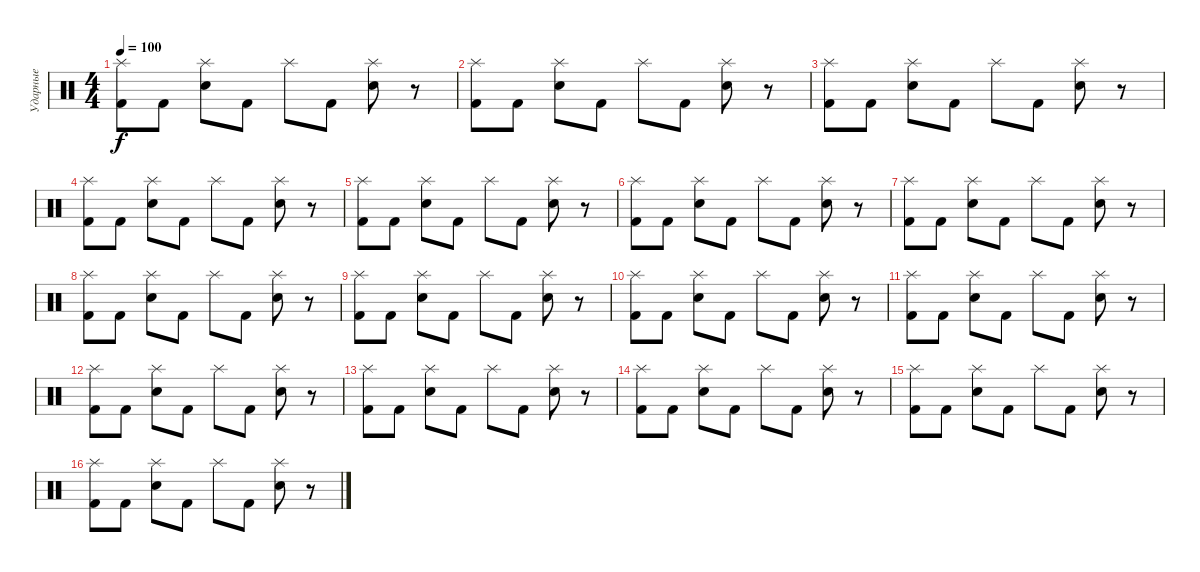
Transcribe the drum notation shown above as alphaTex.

\track ("Ударные" "Ударные") {instrument percussion}
\staff {score}
\articulation defaults
\ts (4 4)
\tempo 100
\clef neutral
\ks c
("Kick (hit) 2" "Splash (hit)").8{dy f} "Kick (hit) 2".8 ("Snare (hit) 2" "Splash (hit)").8 "Kick (hit) 2".8 "Splash (hit)".8 "Kick (hit) 2".8 ("Snare (hit) 2" "Splash (hit)").8 r.8 |
("Kick (hit) 2" "Splash (hit)").8 "Kick (hit) 2".8 ("Snare (hit) 2" "Splash (hit)").8 "Kick (hit) 2".8 "Splash (hit)".8 "Kick (hit) 2".8 ("Snare (hit) 2" "Splash (hit)").8 r.8 |
("Kick (hit) 2" "Splash (hit)").8 "Kick (hit) 2".8 ("Snare (hit) 2" "Splash (hit)").8 "Kick (hit) 2".8 "Splash (hit)".8 "Kick (hit) 2".8 ("Snare (hit) 2" "Splash (hit)").8 r.8 |
("Kick (hit) 2" "Splash (hit)").8 "Kick (hit) 2".8 ("Snare (hit) 2" "Splash (hit)").8 "Kick (hit) 2".8 "Splash (hit)".8 "Kick (hit) 2".8 ("Snare (hit) 2" "Splash (hit)").8 r.8 |
("Kick (hit) 2" "Splash (hit)").8 "Kick (hit) 2".8 ("Snare (hit) 2" "Splash (hit)").8 "Kick (hit) 2".8 "Splash (hit)".8 "Kick (hit) 2".8 ("Snare (hit) 2" "Splash (hit)").8 r.8 |
("Kick (hit) 2" "Splash (hit)").8 "Kick (hit) 2".8 ("Snare (hit) 2" "Splash (hit)").8 "Kick (hit) 2".8 "Splash (hit)".8 "Kick (hit) 2".8 ("Snare (hit) 2" "Splash (hit)").8 r.8 |
("Kick (hit) 2" "Splash (hit)").8 "Kick (hit) 2".8 ("Snare (hit) 2" "Splash (hit)").8 "Kick (hit) 2".8 "Splash (hit)".8 "Kick (hit) 2".8 ("Snare (hit) 2" "Splash (hit)").8 r.8 |
("Kick (hit) 2" "Splash (hit)").8 "Kick (hit) 2".8 ("Snare (hit) 2" "Splash (hit)").8 "Kick (hit) 2".8 "Splash (hit)".8 "Kick (hit) 2".8 ("Snare (hit) 2" "Splash (hit)").8 r.8 |
("Kick (hit) 2" "Splash (hit)").8 "Kick (hit) 2".8 ("Snare (hit) 2" "Splash (hit)").8 "Kick (hit) 2".8 "Splash (hit)".8 "Kick (hit) 2".8 ("Snare (hit) 2" "Splash (hit)").8 r.8 |
("Kick (hit) 2" "Splash (hit)").8 "Kick (hit) 2".8 ("Snare (hit) 2" "Splash (hit)").8 "Kick (hit) 2".8 "Splash (hit)".8 "Kick (hit) 2".8 ("Snare (hit) 2" "Splash (hit)").8 r.8 |
("Kick (hit) 2" "Splash (hit)").8 "Kick (hit) 2".8 ("Snare (hit) 2" "Splash (hit)").8 "Kick (hit) 2".8 "Splash (hit)".8 "Kick (hit) 2".8 ("Snare (hit) 2" "Splash (hit)").8 r.8 |
("Kick (hit) 2" "Splash (hit)").8 "Kick (hit) 2".8 ("Snare (hit) 2" "Splash (hit)").8 "Kick (hit) 2".8 "Splash (hit)".8 "Kick (hit) 2".8 ("Snare (hit) 2" "Splash (hit)").8 r.8 |
("Kick (hit) 2" "Splash (hit)").8 "Kick (hit) 2".8 ("Snare (hit) 2" "Splash (hit)").8 "Kick (hit) 2".8 "Splash (hit)".8 "Kick (hit) 2".8 ("Snare (hit) 2" "Splash (hit)").8 r.8 |
("Kick (hit) 2" "Splash (hit)").8 "Kick (hit) 2".8 ("Snare (hit) 2" "Splash (hit)").8 "Kick (hit) 2".8 "Splash (hit)".8 "Kick (hit) 2".8 ("Snare (hit) 2" "Splash (hit)").8 r.8 |
("Kick (hit) 2" "Splash (hit)").8 "Kick (hit) 2".8 ("Snare (hit) 2" "Splash (hit)").8 "Kick (hit) 2".8 "Splash (hit)".8 "Kick (hit) 2".8 ("Snare (hit) 2" "Splash (hit)").8 r.8 |
("Kick (hit) 2" "Splash (hit)").8 "Kick (hit) 2".8 ("Snare (hit) 2" "Splash (hit)").8 "Kick (hit) 2".8 "Splash (hit)".8 "Kick (hit) 2".8 ("Snare (hit) 2" "Splash (hit)").8 r.8
